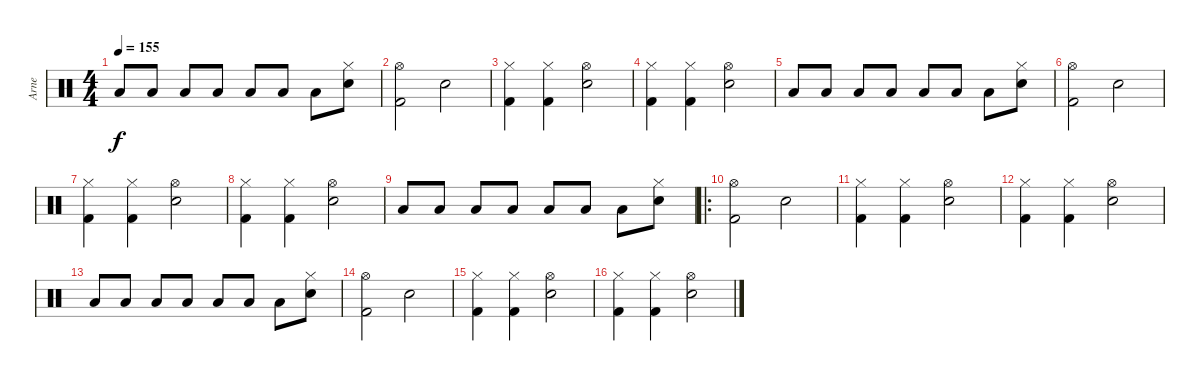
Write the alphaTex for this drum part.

\track ("Arne" "Arne") {instrument percussion}
\staff {score}
\articulation defaults
\ts (4 4)
\tempo 155
\clef neutral
\ks c "Low Tom (hit)".8{dy f} "Low Tom (hit)".8 "Low Tom (hit)".8 "Low Tom (hit)".8 "Low Tom (hit)".8 "Low Tom (hit)".8 "Low Tom (hit)".8
("Electric Snare (hit)" "Hi-Hat (closed)").8 |
("Kick (hit) 2" "Hi-Hat (open)").2 "Electric Snare (hit)".2 |
("Kick (hit) 2" "Hi-Hat (closed)").4 ("Kick (hit) 2" "Hi-Hat (closed)").4 ("Electric Snare (hit)" "Hi-Hat (open)").2 |
("Kick (hit) 2" "Hi-Hat (closed)").4 ("Kick (hit) 2" "Hi-Hat (closed)").4 ("Electric Snare (hit)" "Hi-Hat (open)").2 |
"Low Tom (hit)".8 "Low Tom (hit)".8 "Low Tom (hit)".8 "Low Tom (hit)".8 "Low Tom (hit)".8 "Low Tom (hit)".8 "Low Tom (hit)".8 ("Hi-Hat (closed)" "Electric Snare (hit)").8 |
("Kick (hit) 2" "Hi-Hat (open)").2 "Electric Snare (hit)".2 |
("Kick (hit) 2" "Hi-Hat (closed)").4 ("Kick (hit) 2" "Hi-Hat (closed)").4 ("Electric Snare (hit)" "Hi-Hat (open)").2 |
("Kick (hit) 2" "Hi-Hat (closed)").4 ("Kick (hit) 2" "Hi-Hat (closed)").4 ("Electric Snare (hit)" "Hi-Hat (open)").2 |
"Low Tom (hit)".8 "Low Tom (hit)".8 "Low Tom (hit)".8 "Low Tom (hit)".8 "Low Tom (hit)".8 "Low Tom (hit)".8 "Low Tom (hit)".8 ("Hi-Hat (closed)" "Electric Snare (hit)").8 |
\ro
("Kick (hit) 2" "Hi-Hat (open)").2 "Electric Snare (hit)".2 |
("Kick (hit) 2" "Hi-Hat (closed)").4 ("Kick (hit) 2" "Hi-Hat (closed)").4 ("Electric Snare (hit)" "Hi-Hat (open)").2 |
("Kick (hit) 2" "Hi-Hat (closed)").4 ("Kick (hit) 2" "Hi-Hat (closed)").4 ("Electric Snare (hit)" "Hi-Hat (open)").2 |
"Low Tom (hit)".8 "Low Tom (hit)".8 "Low Tom (hit)".8 "Low Tom (hit)".8 "Low Tom (hit)".8 "Low Tom (hit)".8 "Low Tom (hit)".8 ("Hi-Hat (closed)" "Electric Snare (hit)").8 |
("Kick (hit) 2" "Hi-Hat (open)").2 "Electric Snare (hit)".2 |
("Kick (hit) 2" "Hi-Hat (closed)").4 ("Kick (hit) 2" "Hi-Hat (closed)").4 ("Electric Snare (hit)" "Hi-Hat (open)").2 |
("Kick (hit) 2" "Hi-Hat (closed)").4 ("Kick (hit) 2" "Hi-Hat (closed)").4 ("Electric Snare (hit)" "Hi-Hat (open)").2
